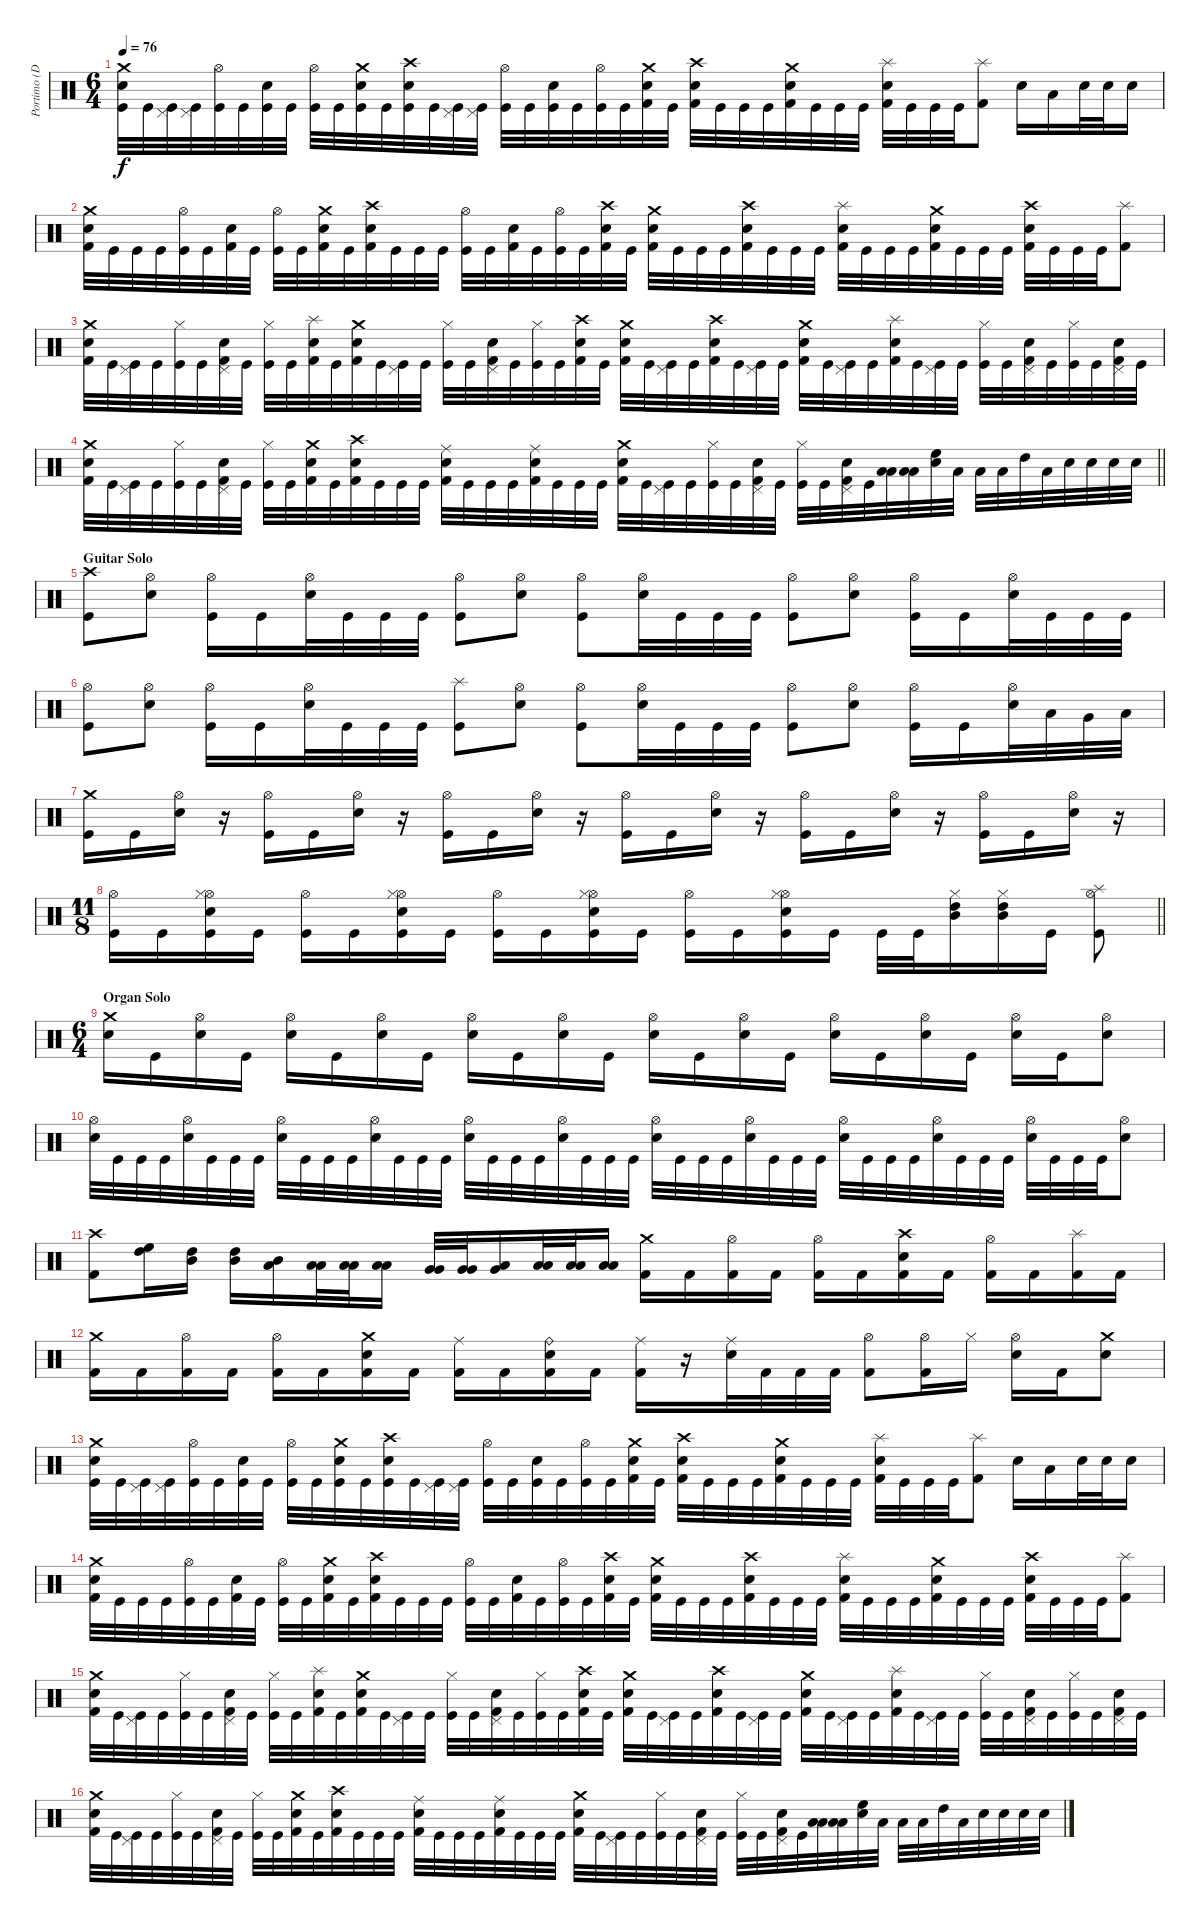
\track ("Portimo (Drums)" "Portimo (D") {mute instrument percussion}
\staff {score}
\articulation defaults
\ts (6 4)
\tempo 76
\clef neutral
\ks c
("Crash medium (hit)" "Snare (hit) 2" "Kick (hit)").32{dy f} "Kick (hit)".32 ("Pedal Hi-Hat (hit)" "Kick (hit)").32 ("Pedal Hi-Hat (hit)" "Kick (hit)").32 ("Hi-Hat (open)" "Kick (hit)").32 "Kick (hit)".32 ("Snare (hit) 2" "Kick (hit)").32 "Kick (hit)".32 ("Hi-Hat (open)" "Kick (hit)").32 "Kick (hit)".32 ("Crash medium (hit)" "Snare (hit) 2" "Kick (hit)").32 "Kick (hit)".32 ("Crash high (hit)" "Snare (hit) 2" "Kick (hit)").32 "Kick (hit)".32 ("Pedal Hi-Hat (hit)" "Kick (hit)").32 ("Pedal Hi-Hat (hit)" "Kick (hit)").32 ("Hi-Hat (open)" "Kick (hit)").32 "Kick (hit)".32 ("Snare (hit) 2" "Kick (hit)").32 "Kick (hit)".32 ("Hi-Hat (open)" "Kick (hit)").32 "Kick (hit)".32 ("Crash medium (hit)" "Snare (hit) 2" "Kick (hit) 2").32 "Kick (hit)".32 ("Crash high (hit)" "Snare (hit) 2" "Kick (hit) 2").32 "Kick (hit)".32 "Kick (hit)".32 "Kick (hit)".32 ("Crash medium (hit)" "Snare (hit) 2" "Kick (hit) 2").32 "Kick (hit)".32 "Kick (hit)".32 "Kick (hit)".32 ("Splash (hit)" "Snare (hit) 2" "Kick (hit) 2").32 "Kick (hit)".32 "Kick (hit)".32 "Kick (hit)".32 ("Splash (hit)" "Kick (hit) 2").8 "Snare (hit) 2".16 "Low Tom (hit)".16 "Snare (hit) 2".32 "Snare (hit) 2".32 "Snare (hit) 2".16 |
("Crash medium (hit)" "Snare (hit) 2" "Kick (hit) 2").32 "Kick (hit)".32 "Kick (hit)".32 "Kick (hit)".32 ("Hi-Hat (open)" "Kick (hit)").32 "Kick (hit)".32 ("Snare (hit) 2" "Kick (hit) 2").32 "Kick (hit)".32 ("Hi-Hat (open)" "Kick (hit)").32 "Kick (hit)".32 ("Crash medium (hit)" "Snare (hit) 2" "Kick (hit) 2").32 "Kick (hit)".32 ("Crash high (hit)" "Snare (hit) 2" "Kick (hit) 2").32 "Kick (hit)".32 "Kick (hit)".32 "Kick (hit)".32 ("Hi-Hat (open)" "Kick (hit)").32 "Kick (hit)".32 ("Snare (hit) 2" "Kick (hit) 2").32 "Kick (hit)".32 ("Hi-Hat (open)" "Kick (hit)").32 "Kick (hit)".32 ("Crash high (hit)" "Snare (hit) 2" "Kick (hit) 2").32 "Kick (hit)".32 ("Crash medium (hit)" "Snare (hit) 2" "Kick (hit) 2").32 "Kick (hit)".32 "Kick (hit)".32 "Kick (hit)".32 ("Crash high (hit)" "Snare (hit) 2" "Kick (hit) 2").32 "Kick (hit)".32 "Kick (hit)".32 "Kick (hit)".32 ("Splash (hit)" "Snare (hit) 2" "Kick (hit) 2").32 "Kick (hit)".32 "Kick (hit)".32 "Kick (hit)".32 ("Crash medium (hit)" "Snare (hit) 2" "Kick (hit) 2").32 "Kick (hit)".32 "Kick (hit)".32 "Kick (hit)".32 ("Crash high (hit)" "Snare (hit) 2" "Kick (hit) 2").32 "Kick (hit)".32 "Kick (hit)".32 "Kick (hit)".32 ("Splash (hit)" "Kick (hit) 2").8 |
("Crash medium (hit)" "Snare (hit) 2" "Kick (hit) 2").32 "Kick (hit)".32 ("Pedal Hi-Hat (hit)" "Kick (hit)").32 "Kick (hit)".32 ("Hi-Hat (closed)" "Kick (hit)").32 "Kick (hit)".32 ("Pedal Hi-Hat (hit)" "Snare (hit) 2" "Kick (hit) 2").32 "Kick (hit)".32 ("Hi-Hat (closed)" "Kick (hit)").32 "Kick (hit)".32 ("Splash (hit)" "Snare (hit) 2" "Kick (hit) 2").32 "Kick (hit)".32 ("Crash medium (hit)" "Snare (hit) 2" "Kick (hit) 2").32 "Kick (hit)".32 ("Pedal Hi-Hat (hit)" "Kick (hit)").32 "Kick (hit)".32 ("Hi-Hat (closed)" "Kick (hit)").32 "Kick (hit)".32 ("Pedal Hi-Hat (hit)" "Snare (hit) 2" "Kick (hit) 2").32 "Kick (hit)".32 ("Hi-Hat (closed)" "Kick (hit)").32 "Kick (hit)".32 ("Crash high (hit)" "Snare (hit) 2" "Kick (hit) 2").32 "Kick (hit)".32 ("Crash medium (hit)" "Snare (hit) 2" "Kick (hit) 2").32 "Kick (hit)".32 ("Pedal Hi-Hat (hit)" "Kick (hit)").32 "Kick (hit)".32 ("Crash high (hit)" "Snare (hit) 2" "Kick (hit) 2").32 "Kick (hit)".32 ("Pedal Hi-Hat (hit)" "Kick (hit)").32 "Kick (hit)".32 ("Crash medium (hit)" "Snare (hit) 2" "Kick (hit) 2").32 "Kick (hit)".32 ("Pedal Hi-Hat (hit)" "Kick (hit)").32 "Kick (hit)".32 ("Splash (hit)" "Snare (hit) 2" "Kick (hit) 2").32 "Kick (hit)".32 ("Pedal Hi-Hat (hit)" "Kick (hit)").32 "Kick (hit)".32 ("Hi-Hat (closed)" "Kick (hit)").32 "Kick (hit)".32 ("Pedal Hi-Hat (hit)" "Snare (hit) 2" "Kick (hit) 2").32 "Kick (hit)".32 ("Hi-Hat (closed)" "Kick (hit)").32 "Kick (hit)".32 ("Pedal Hi-Hat (hit)" "Snare (hit) 2" "Kick (hit) 2").32 "Kick (hit)".32 |
\barLineRight lightlight
("Crash medium (hit)" "Snare (hit) 2" "Kick (hit) 2").32 "Kick (hit)".32 ("Pedal Hi-Hat (hit)" "Kick (hit)").32 "Kick (hit)".32 ("Hi-Hat (closed)" "Kick (hit)").32 "Kick (hit)".32 ("Pedal Hi-Hat (hit)" "Snare (hit) 2" "Kick (hit) 2").32 "Kick (hit)".32 ("Hi-Hat (closed)" "Kick (hit)").32 "Kick (hit)".32 ("Crash medium (hit)" "Snare (hit) 2" "Kick (hit) 2").32 "Kick (hit)".32 ("Crash high (hit)" "Snare (hit) 2" "Kick (hit) 2").32 "Kick (hit)".32 "Kick (hit)".32 "Kick (hit)".32 ("Ride (middle)" "Snare (hit) 2" "Kick (hit) 2").32 "Kick (hit)".32 "Kick (hit)".32 "Kick (hit)".32 ("Ride (middle)" "Snare (hit) 2" "Kick (hit) 2").32 "Kick (hit)".32 "Kick (hit)".32 "Kick (hit)".32 ("Crash medium (hit)" "Snare (hit) 2" "Kick (hit) 2").32 "Kick (hit)".32 ("Pedal Hi-Hat (hit)" "Kick (hit)").32 "Kick (hit)".32 ("Hi-Hat (closed)" "Kick (hit)").32 "Kick (hit)".32 ("Pedal Hi-Hat (hit)" "Snare (hit) 2" "Kick (hit) 2").32 "Kick (hit)".32 ("Hi-Hat (closed)" "Kick (hit)").32 "Kick (hit)".32 ("Pedal Hi-Hat (hit)" "Snare (hit) 2" "Kick (hit) 2").32 "Kick (hit)".32 ("Low Floor Tom (hit)" "Low Tom (hit)").32 ("Low Floor Tom (hit)" "Low Tom (hit)").32 ("Electric Snare (hit)" "High Floor Tom (hit)").32 "Low Tom (hit)".32 "Low Tom (hit)".32 "Low Tom (hit)".32 "High Tom (hit)".32 "Low Tom (hit)".32 "Snare (hit) 2".32 "Snare (hit) 2".32 "Snare (hit) 2".32 "Snare (hit) 2".32 |
\section ("" "Guitar Solo")
("Crash high (hit)" "Kick (hit)").8 ("Hi-Hat (open)" "Snare (hit) 2").8 ("Hi-Hat (open)" "Kick (hit)").16 "Kick (hit)".16 ("Hi-Hat (open)" "Snare (hit) 2").32 "Kick (hit)".32 "Kick (hit)".32 "Kick (hit)".32 ("Hi-Hat (open)" "Kick (hit)").8 ("Hi-Hat (open)" "Snare (hit) 2").8 ("Hi-Hat (open)" "Kick (hit)").8 ("Hi-Hat (open)" "Snare (hit) 2").32 "Kick (hit)".32 "Kick (hit)".32 "Kick (hit)".32 ("Hi-Hat (open)" "Kick (hit)").8 ("Hi-Hat (open)" "Snare (hit) 2").8 ("Hi-Hat (open)" "Kick (hit)").16 "Kick (hit)".16 ("Hi-Hat (open)" "Snare (hit) 2").32 "Kick (hit)".32 "Kick (hit)".32 "Kick (hit)".32 |
("Hi-Hat (open)" "Kick (hit)").8 ("Hi-Hat (open)" "Snare (hit) 2").8 ("Hi-Hat (open)" "Kick (hit)").16 "Kick (hit)".16 ("Hi-Hat (open)" "Snare (hit) 2").32 "Kick (hit)".32 "Kick (hit)".32 "Kick (hit)".32 ("Splash (hit)" "Kick (hit)").8 ("Hi-Hat (open)" "Snare (hit) 2").8 ("Hi-Hat (open)" "Kick (hit)").8 ("Hi-Hat (open)" "Snare (hit) 2").32 "Kick (hit)".32 "Kick (hit)".32 "Kick (hit)".32 ("Hi-Hat (open)" "Kick (hit)").8 ("Hi-Hat (open)" "Snare (hit) 2").8 ("Hi-Hat (open)" "Kick (hit)").16 "Kick (hit)".16 ("Hi-Hat (open)" "Snare (hit) 2").32 "Low Tom (hit)".32 "Very Low Tom (hit)".32 "Low Tom (hit)".32 |
("Crash medium (hit)" "Kick (hit)").16 "Kick (hit)".16 ("Hi-Hat (open)" "Snare (hit) 2").16 r.16 ("Hi-Hat (open)" "Kick (hit)").16 "Kick (hit)".16 ("Hi-Hat (open)" "Snare (hit) 2").16 r.16 ("Hi-Hat (open)" "Kick (hit)").16 "Kick (hit)".16 ("Hi-Hat (open)" "Snare (hit) 2").16 r.16 ("Hi-Hat (open)" "Kick (hit)").16 "Kick (hit)".16 ("Hi-Hat (open)" "Snare (hit) 2").16 r.16 ("Hi-Hat (open)" "Kick (hit)").16 "Kick (hit)".16 ("Hi-Hat (open)" "Snare (hit) 2").16 r.16 ("Hi-Hat (open)" "Kick (hit)").16 "Kick (hit)".16 ("Hi-Hat (open)" "Snare (hit) 2").16 r.16 |
\ts (11 8)
\barLineRight lightlight
("Hi-Hat (open)" "Kick (hit)").16 "Kick (hit)".16 ("Hi-Hat (open)" "Hi-Hat (closed)" "Snare (hit) 2" "Kick (hit)").16 "Kick (hit)".16 ("Hi-Hat (open)" "Kick (hit)").16 "Kick (hit)".16 ("Hi-Hat (open)" "Hi-Hat (closed)" "Snare (hit) 2" "Kick (hit)").16 "Kick (hit)".16 ("Hi-Hat (open)" "Kick (hit)").16 "Kick (hit)".16 ("Hi-Hat (open)" "Hi-Hat (closed)" "Snare (hit) 2" "Kick (hit)").16 "Kick (hit)".16 ("Hi-Hat (open)" "Kick (hit)").16 "Kick (hit)".16 ("Hi-Hat (open)" "Hi-Hat (closed)" "Snare (hit) 2" "Kick (hit)").16 "Kick (hit)".16 "Kick (hit)".32 "Kick (hit)".32 ("Hi-Hat (closed)" "High Tom (hit)" "Mid Tom (hit)").16 ("Hi-Hat (closed)" "High Tom (hit)" "Mid Tom (hit)").16 "Kick (hit)".16 ("Hi-Hat (open)" "Splash (hit)" "Kick (hit)").8 |
\ts (6 4)
\section ("" "Organ Solo")
("Crash medium (hit)" "Snare (hit) 2").16 "Kick (hit)".16 ("Hi-Hat (open)" "Snare (hit) 2").16 "Kick (hit)".16 ("Hi-Hat (open)" "Snare (hit) 2").16 "Kick (hit)".16 ("Hi-Hat (open)" "Snare (hit) 2").16 "Kick (hit)".16 ("Hi-Hat (open)" "Snare (hit) 2").16 "Kick (hit)".16 ("Hi-Hat (open)" "Snare (hit) 2").16 "Kick (hit)".16 ("Hi-Hat (open)" "Snare (hit) 2").16 "Kick (hit)".16 ("Hi-Hat (open)" "Snare (hit) 2").16 "Kick (hit)".16 ("Hi-Hat (open)" "Snare (hit) 2").16 "Kick (hit)".16 ("Hi-Hat (open)" "Snare (hit) 2").16 "Kick (hit)".16 ("Hi-Hat (open)" "Snare (hit) 2").16 "Kick (hit)".16 ("Hi-Hat (open)" "Snare (hit) 2").8 |
("Hi-Hat (open)" "Snare (hit) 2").32 "Kick (hit)".32 "Kick (hit)".32 "Kick (hit)".32 ("Hi-Hat (open)" "Snare (hit) 2").32 "Kick (hit)".32 "Kick (hit)".32 "Kick (hit)".32 ("Hi-Hat (open)" "Snare (hit) 2").32 "Kick (hit)".32 "Kick (hit)".32 "Kick (hit)".32 ("Hi-Hat (open)" "Snare (hit) 2").32 "Kick (hit)".32 "Kick (hit)".32 "Kick (hit)".32 ("Hi-Hat (open)" "Snare (hit) 2").32 "Kick (hit)".32 "Kick (hit)".32 "Kick (hit)".32 ("Hi-Hat (open)" "Snare (hit) 2").32 "Kick (hit)".32 "Kick (hit)".32 "Kick (hit)".32 ("Hi-Hat (open)" "Snare (hit) 2").32 "Kick (hit)".32 "Kick (hit)".32 "Kick (hit)".32 ("Hi-Hat (open)" "Snare (hit) 2").32 "Kick (hit)".32 "Kick (hit)".32 "Kick (hit)".32 ("Hi-Hat (open)" "Snare (hit) 2").32 "Kick (hit)".32 "Kick (hit)".32 "Kick (hit)".32 ("Hi-Hat (open)" "Snare (hit) 2").32 "Kick (hit)".32 "Kick (hit)".32 "Kick (hit)".32 ("Hi-Hat (open)" "Snare (hit) 2").32 "Kick (hit)".32 "Kick (hit)".32 "Kick (hit)".32 ("Hi-Hat (open)" "Snare (hit) 2").8 |
("Crash high (hit)" "Kick (hit) 2").8 ("High Floor Tom (hit)" "High Tom (hit)").16{bd 60} ("High Tom (hit)" "Mid Tom (hit)").16{bd 60} ("High Tom (hit)" "Mid Tom (hit)").16{bd 60} ("Low Tom (hit)" "Mid Tom (hit)").16{bd 60} ("Low Tom (hit)" "Low Tom (hit)").32{bd 60} ("Low Tom (hit)" "Low Tom (hit)").32{bd 60} ("Low Tom (hit)" "Low Tom (hit)").16{bd 60} ("Very Low Tom (hit)" "Very Low Tom (hit)").32{bd 60} ("Very Low Tom (hit)" "Very Low Tom (hit)").32{bd 60} ("Low Floor Tom (hit)" "Very Low Tom (hit)").16{bd 60} ("Low Floor Tom (hit)" "Low Floor Tom (hit)").32{bd 60} ("Low Floor Tom (hit)" "Low Floor Tom (hit)").32{bd 60} ("Low Floor Tom (hit)" "Low Floor Tom (hit)").16{bd 60} ("Crash medium (hit)" "Kick (hit) 2").16 "Kick (hit) 2".16 ("Hi-Hat (open)" "Kick (hit) 2").16 "Kick (hit) 2".16 ("Hi-Hat (open)" "Kick (hit) 2").16 "Kick (hit) 2".16 ("Crash high (hit)" "Snare (hit) 2" "Kick (hit) 2").16 "Kick (hit) 2".16 ("Hi-Hat (open)" "Kick (hit) 2").16 "Kick (hit) 2".16 ("Splash (hit)" "Kick (hit) 2").16 "Kick (hit) 2".16 |
("Crash medium (hit)" "Kick (hit) 2").16 "Kick (hit) 2".16 ("Hi-Hat (open)" "Kick (hit) 2").16 "Kick (hit) 2".16 ("Hi-Hat (open)" "Kick (hit) 2").16 "Kick (hit) 2".16 ("Crash medium (hit)" "Snare (hit) 2" "Kick (hit) 2").16 "Kick (hit) 2".16 ("Ride (middle)" "Kick (hit) 2").16 "Kick (hit) 2".16 ("Ride (bell)" "Snare (hit) 2" "Kick (hit) 2").16 "Kick (hit) 2".16 ("Ride (middle)" "Kick (hit) 2").16 r.16 ("Ride (middle)" "Snare (hit) 2").32 "Kick (hit) 2".32 "Kick (hit) 2".32 "Kick (hit) 2".32 ("Hi-Hat (open)" "Kick (hit) 2").8 ("Hi-Hat (open)" "Kick (hit) 2").16 "Hi-Hat (closed)".16 ("Hi-Hat (open)" "Snare (hit) 2").16 "Kick (hit) 2".16 ("Crash medium (hit)" "Snare (hit) 2").8 |
("Crash medium (hit)" "Snare (hit) 2" "Kick (hit)").32 "Kick (hit)".32 ("Pedal Hi-Hat (hit)" "Kick (hit)").32 ("Pedal Hi-Hat (hit)" "Kick (hit)").32 ("Hi-Hat (open)" "Kick (hit)").32 "Kick (hit)".32 ("Snare (hit) 2" "Kick (hit)").32 "Kick (hit)".32 ("Hi-Hat (open)" "Kick (hit)").32 "Kick (hit)".32 ("Crash medium (hit)" "Snare (hit) 2" "Kick (hit)").32 "Kick (hit)".32 ("Crash high (hit)" "Snare (hit) 2" "Kick (hit)").32 "Kick (hit)".32 ("Pedal Hi-Hat (hit)" "Kick (hit)").32 ("Pedal Hi-Hat (hit)" "Kick (hit)").32 ("Hi-Hat (open)" "Kick (hit)").32 "Kick (hit)".32 ("Snare (hit) 2" "Kick (hit)").32 "Kick (hit)".32 ("Hi-Hat (open)" "Kick (hit)").32 "Kick (hit)".32 ("Crash medium (hit)" "Snare (hit) 2" "Kick (hit) 2").32 "Kick (hit)".32 ("Crash high (hit)" "Snare (hit) 2" "Kick (hit) 2").32 "Kick (hit)".32 "Kick (hit)".32 "Kick (hit)".32 ("Crash medium (hit)" "Snare (hit) 2" "Kick (hit) 2").32 "Kick (hit)".32 "Kick (hit)".32 "Kick (hit)".32 ("Splash (hit)" "Snare (hit) 2" "Kick (hit) 2").32 "Kick (hit)".32 "Kick (hit)".32 "Kick (hit)".32 ("Splash (hit)" "Kick (hit) 2").8 "Snare (hit) 2".16 "Low Tom (hit)".16 "Snare (hit) 2".32 "Snare (hit) 2".32 "Snare (hit) 2".16 |
("Crash medium (hit)" "Snare (hit) 2" "Kick (hit) 2").32 "Kick (hit)".32 "Kick (hit)".32 "Kick (hit)".32 ("Hi-Hat (open)" "Kick (hit)").32 "Kick (hit)".32 ("Snare (hit) 2" "Kick (hit) 2").32 "Kick (hit)".32 ("Hi-Hat (open)" "Kick (hit)").32 "Kick (hit)".32 ("Crash medium (hit)" "Snare (hit) 2" "Kick (hit) 2").32 "Kick (hit)".32 ("Crash high (hit)" "Snare (hit) 2" "Kick (hit) 2").32 "Kick (hit)".32 "Kick (hit)".32 "Kick (hit)".32 ("Hi-Hat (open)" "Kick (hit)").32 "Kick (hit)".32 ("Snare (hit) 2" "Kick (hit) 2").32 "Kick (hit)".32 ("Hi-Hat (open)" "Kick (hit)").32 "Kick (hit)".32 ("Crash high (hit)" "Snare (hit) 2" "Kick (hit) 2").32 "Kick (hit)".32 ("Crash medium (hit)" "Snare (hit) 2" "Kick (hit) 2").32 "Kick (hit)".32 "Kick (hit)".32 "Kick (hit)".32 ("Crash high (hit)" "Snare (hit) 2" "Kick (hit) 2").32 "Kick (hit)".32 "Kick (hit)".32 "Kick (hit)".32 ("Splash (hit)" "Snare (hit) 2" "Kick (hit) 2").32 "Kick (hit)".32 "Kick (hit)".32 "Kick (hit)".32 ("Crash medium (hit)" "Snare (hit) 2" "Kick (hit) 2").32 "Kick (hit)".32 "Kick (hit)".32 "Kick (hit)".32 ("Crash high (hit)" "Snare (hit) 2" "Kick (hit) 2").32 "Kick (hit)".32 "Kick (hit)".32 "Kick (hit)".32 ("Splash (hit)" "Kick (hit) 2").8 |
("Crash medium (hit)" "Snare (hit) 2" "Kick (hit) 2").32 "Kick (hit)".32 ("Pedal Hi-Hat (hit)" "Kick (hit)").32 "Kick (hit)".32 ("Hi-Hat (closed)" "Kick (hit)").32 "Kick (hit)".32 ("Pedal Hi-Hat (hit)" "Snare (hit) 2" "Kick (hit) 2").32 "Kick (hit)".32 ("Hi-Hat (closed)" "Kick (hit)").32 "Kick (hit)".32 ("Splash (hit)" "Snare (hit) 2" "Kick (hit) 2").32 "Kick (hit)".32 ("Crash medium (hit)" "Snare (hit) 2" "Kick (hit) 2").32 "Kick (hit)".32 ("Pedal Hi-Hat (hit)" "Kick (hit)").32 "Kick (hit)".32 ("Hi-Hat (closed)" "Kick (hit)").32 "Kick (hit)".32 ("Pedal Hi-Hat (hit)" "Snare (hit) 2" "Kick (hit) 2").32 "Kick (hit)".32 ("Hi-Hat (closed)" "Kick (hit)").32 "Kick (hit)".32 ("Crash high (hit)" "Snare (hit) 2" "Kick (hit) 2").32 "Kick (hit)".32 ("Crash medium (hit)" "Snare (hit) 2" "Kick (hit) 2").32 "Kick (hit)".32 ("Pedal Hi-Hat (hit)" "Kick (hit)").32 "Kick (hit)".32 ("Crash high (hit)" "Snare (hit) 2" "Kick (hit) 2").32 "Kick (hit)".32 ("Pedal Hi-Hat (hit)" "Kick (hit)").32 "Kick (hit)".32 ("Crash medium (hit)" "Snare (hit) 2" "Kick (hit) 2").32 "Kick (hit)".32 ("Pedal Hi-Hat (hit)" "Kick (hit)").32 "Kick (hit)".32 ("Splash (hit)" "Snare (hit) 2" "Kick (hit) 2").32 "Kick (hit)".32 ("Pedal Hi-Hat (hit)" "Kick (hit)").32 "Kick (hit)".32 ("Hi-Hat (closed)" "Kick (hit)").32 "Kick (hit)".32 ("Pedal Hi-Hat (hit)" "Snare (hit) 2" "Kick (hit) 2").32 "Kick (hit)".32 ("Hi-Hat (closed)" "Kick (hit)").32 "Kick (hit)".32 ("Pedal Hi-Hat (hit)" "Snare (hit) 2" "Kick (hit) 2").32 "Kick (hit)".32 |
("Crash medium (hit)" "Snare (hit) 2" "Kick (hit) 2").32 "Kick (hit)".32 ("Pedal Hi-Hat (hit)" "Kick (hit)").32 "Kick (hit)".32 ("Hi-Hat (closed)" "Kick (hit)").32 "Kick (hit)".32 ("Pedal Hi-Hat (hit)" "Snare (hit) 2" "Kick (hit) 2").32 "Kick (hit)".32 ("Hi-Hat (closed)" "Kick (hit)").32 "Kick (hit)".32 ("Crash medium (hit)" "Snare (hit) 2" "Kick (hit) 2").32 "Kick (hit)".32 ("Crash high (hit)" "Snare (hit) 2" "Kick (hit) 2").32 "Kick (hit)".32 "Kick (hit)".32 "Kick (hit)".32 ("Ride (middle)" "Snare (hit) 2" "Kick (hit) 2").32 "Kick (hit)".32 "Kick (hit)".32 "Kick (hit)".32 ("Ride (middle)" "Snare (hit) 2" "Kick (hit) 2").32 "Kick (hit)".32 "Kick (hit)".32 "Kick (hit)".32 ("Crash medium (hit)" "Snare (hit) 2" "Kick (hit) 2").32 "Kick (hit)".32 ("Pedal Hi-Hat (hit)" "Kick (hit)").32 "Kick (hit)".32 ("Hi-Hat (closed)" "Kick (hit)").32 "Kick (hit)".32 ("Pedal Hi-Hat (hit)" "Snare (hit) 2" "Kick (hit) 2").32 "Kick (hit)".32 ("Hi-Hat (closed)" "Kick (hit)").32 "Kick (hit)".32 ("Pedal Hi-Hat (hit)" "Snare (hit) 2" "Kick (hit) 2").32 "Kick (hit)".32 ("Low Floor Tom (hit)" "Low Tom (hit)").32 ("Low Floor Tom (hit)" "Low Tom (hit)").32 ("Electric Snare (hit)" "High Floor Tom (hit)").32 "Low Tom (hit)".32 "Low Tom (hit)".32 "Low Tom (hit)".32 "High Tom (hit)".32 "Low Tom (hit)".32 "Snare (hit) 2".32 "Snare (hit) 2".32 "Snare (hit) 2".32 "Snare (hit) 2".32
